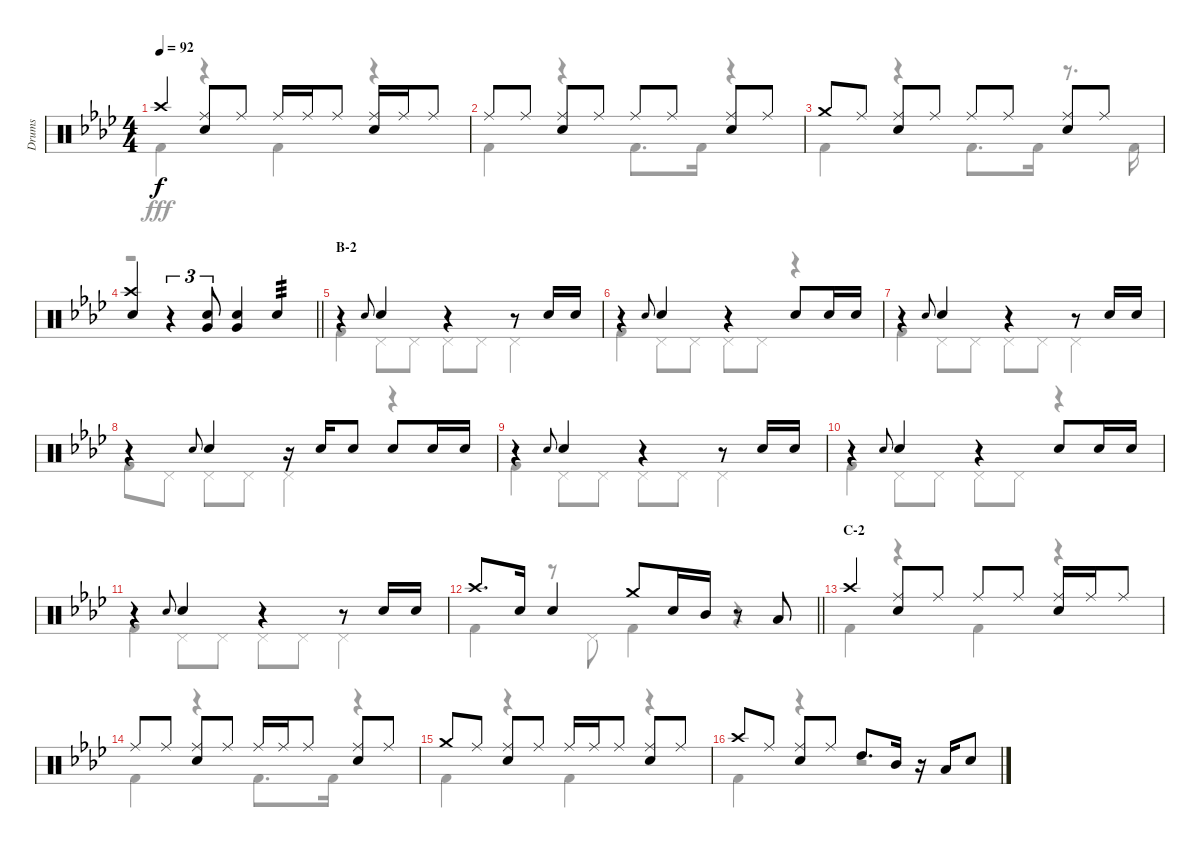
\track ("Drums" "Drums") {instrument percussion}
\staff {score}
\articulation defaults
\voice
\ts (4 4)
\tempo 92
\clef neutral
\ks ab "Crash high (hit)".4{dy f}
("Ride (middle)" "Snare (hit) 2").8 "Ride (middle)".8 "Ride (middle)".16 "Ride (middle)".16 "Ride (middle)".8 ("Ride (middle)" "Snare (hit) 2").16 "Ride (middle)".16 "Ride (middle)".8 |
"Ride (middle)".8 "Ride (middle)".8 ("Ride (middle)" "Snare (hit) 2").8 "Ride (middle)".8 "Ride (middle)".8 "Ride (middle)".8 ("Ride (middle)" "Snare (hit) 2").8 "Ride (middle)".8 |
"Crash medium (hit)".8 "Ride (middle)".8 ("Ride (middle)" "Snare (hit) 2").8 "Ride (middle)".8 "Ride (middle)".8 "Ride (middle)".8 ("Ride (middle)" "Snare (hit) 2").8 "Ride (middle)".8 |
\barLineRight lightlight
("Crash high (hit)" "Snare (hit) 2").4 r.4{tu (3 2)} ("Snare (hit) 2" "Very Low Tom (hit)").8{tu (3 2)} ("Snare (hit) 2" "Very Low Tom (hit)").4 "Snare (hit) 2".4{tp 3} |
\section ("" "B-2")
r.4 "Snare (hit) 2".8{gr onbeat} "Snare (hit) 2".4 r.4 r.8 "Snare (hit) 2".16 "Snare (hit) 2".16 |
r.4 "Snare (hit) 2".8{gr onbeat} "Snare (hit) 2".4 r.4 "Snare (hit) 2".8 "Snare (hit) 2".16 "Snare (hit) 2".16 |
r.4 "Snare (hit) 2".8{gr onbeat} "Snare (hit) 2".4 r.4 r.8 "Snare (hit) 2".16 "Snare (hit) 2".16 |
r.4 "Snare (hit) 2".8{gr onbeat} "Snare (hit) 2".4 r.16 "Snare (hit) 2".16 "Snare (hit) 2".8 "Snare (hit) 2".8 "Snare (hit) 2".16 "Snare (hit) 2".16 |
r.4 "Snare (hit) 2".8{gr onbeat} "Snare (hit) 2".4 r.4 r.8 "Snare (hit) 2".16 "Snare (hit) 2".16 |
r.4 "Snare (hit) 2".8{gr onbeat} "Snare (hit) 2".4 r.4 "Snare (hit) 2".8 "Snare (hit) 2".16 "Snare (hit) 2".16 |
r.4 "Snare (hit) 2".8{gr onbeat} "Snare (hit) 2".4 r.4 r.8 "Snare (hit) 2".16 "Snare (hit) 2".16 |
\barLineRight lightlight "Crash high (hit)".8{d} "Snare (hit) 2".16 "Snare (hit) 2".4 "Crash medium (hit)".8 "Snare (hit) 2".16 "Mid Tom (hit)".16
r.8 "Low Tom (hit)".8 |
\section ("" "C-2")
"Crash high (hit)".4 ("Ride (middle)" "Snare (hit) 2").8 "Ride (middle)".8 "Ride (middle)".8 "Ride (middle)".8 ("Ride (middle)" "Snare (hit) 2").16 "Ride (middle)".16 "Ride (middle)".8 |
"Ride (middle)".8 "Ride (middle)".8 ("Ride (middle)" "Snare (hit) 2").8 "Ride (middle)".8 "Ride (middle)".16 "Ride (middle)".16 "Ride (middle)".8 ("Ride (middle)" "Snare (hit) 2").8 "Ride (middle)".8 |
"Crash medium (hit)".8 "Ride (middle)".8 ("Ride (middle)" "Snare (hit) 2").8 "Ride (middle)".8 "Ride (middle)".16 "Ride (middle)".16 "Ride (middle)".8 ("Ride (middle)" "Snare (hit) 2").8 "Ride (middle)".8 |
"Crash high (hit)".8 "Ride (middle)".8 ("Ride (middle)" "Snare (hit) 2").8 "Ride (middle)".8 "High Tom (hit)".8{d} "Mid Tom (hit)".16 r.16 "Low Tom (hit)".16 "Snare (hit) 2".8
\voice
\clef neutral
\ottava regular
\simile none
\ks ab "Kick (hit) 2".4{dy fff}
r.4 "Kick (hit) 2".4 r.4 |
"Kick (hit) 2".4 r.4 "Kick (hit) 2".8{d} "Kick (hit) 2".16 r.4 |
"Kick (hit) 2".4 r.4 "Kick (hit) 2".8{d} "Kick (hit) 2".16 r.8{d} "Kick (hit) 2".16 |
\barLineRight lightlight
r.1 |
"Kick (hit) 2".4 "Pedal Hi-Hat (hit)".8 "Pedal Hi-Hat (hit)".8 "Pedal Hi-Hat (hit)".8 "Pedal Hi-Hat (hit)".8 "Pedal Hi-Hat (hit)".4 |
"Kick (hit) 2".4 "Pedal Hi-Hat (hit)".8 "Pedal Hi-Hat (hit)".8 "Pedal Hi-Hat (hit)".8 "Pedal Hi-Hat (hit)".8 r.4 |
"Kick (hit) 2".4 "Pedal Hi-Hat (hit)".8 "Pedal Hi-Hat (hit)".8 "Pedal Hi-Hat (hit)".8 "Pedal Hi-Hat (hit)".8 "Pedal Hi-Hat (hit)".4 |
"Kick (hit) 2".8 "Pedal Hi-Hat (hit)".8 "Pedal Hi-Hat (hit)".8 "Pedal Hi-Hat (hit)".8 "Pedal Hi-Hat (hit)".4 r.4 |
"Kick (hit) 2".4 "Pedal Hi-Hat (hit)".8 "Pedal Hi-Hat (hit)".8 "Pedal Hi-Hat (hit)".8 "Pedal Hi-Hat (hit)".8 "Pedal Hi-Hat (hit)".4 |
"Kick (hit) 2".4 "Pedal Hi-Hat (hit)".8 "Pedal Hi-Hat (hit)".8 "Pedal Hi-Hat (hit)".8 "Pedal Hi-Hat (hit)".8 r.4 |
"Kick (hit) 2".4 "Pedal Hi-Hat (hit)".8 "Pedal Hi-Hat (hit)".8 "Pedal Hi-Hat (hit)".8 "Pedal Hi-Hat (hit)".8 "Pedal Hi-Hat (hit)".4 |
\barLineRight lightlight "Kick (hit) 2".4
r.8 "Pedal Hi-Hat (hit)".8 "Kick (hit) 2".4 r.4 |
"Kick (hit) 2".4 r.4 "Kick (hit) 2".4 r.4 |
"Kick (hit) 2".4 r.4 "Kick (hit) 2".8{d} "Kick (hit) 2".16 r.4 |
"Kick (hit) 2".4 r.4 "Kick (hit) 2".4 r.4 |
"Kick (hit) 2".4 r.4 r.2
